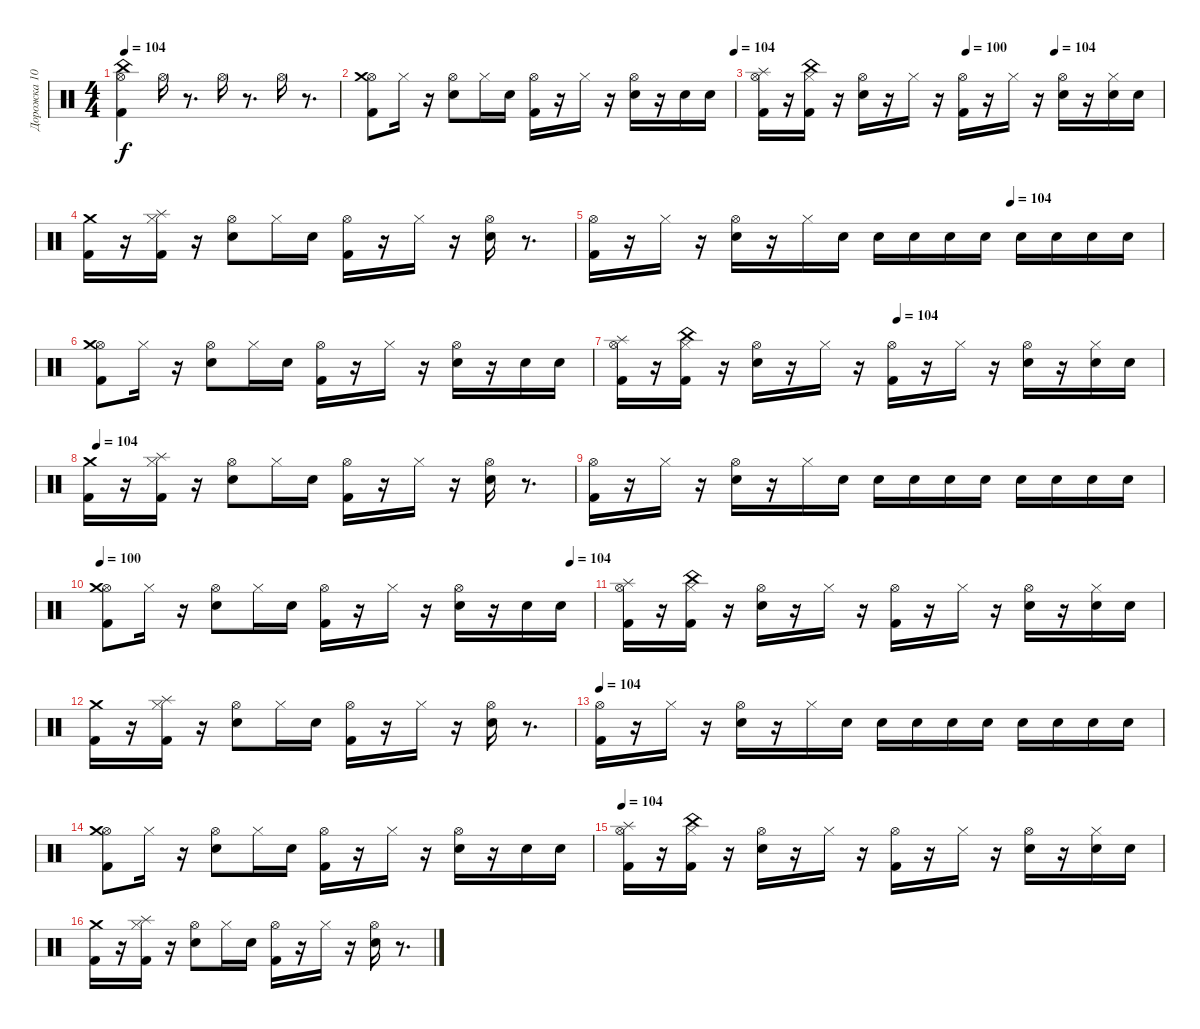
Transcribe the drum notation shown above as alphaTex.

\track ("Дорожка 10" "Дорожка 10") {instrument percussion}
\staff {score}
\articulation defaults
\ts (4 4)
\tempo 104
\clef neutral
\ks c
("China (hit)" "Hi-Hat (open)" "Kick (hit) 2").4{dy f} "Hi-Hat (open)".16 r.8{d} "Hi-Hat (open)".16 r.8{d} "Hi-Hat (open)".16 r.8{d} |
\tempo (104 1)
("Hi-Hat (open)" "Crash medium (hit)" "Kick (hit) 2").8 "Hi-Hat (closed)".16 r.16 ("Hi-Hat (open)" "Electric Snare (hit)").8 "Hi-Hat (closed)".16 "Electric Snare (hit)".16 ("Hi-Hat (open)" "Kick (hit) 2").16 r.16 "Hi-Hat (closed)".16 r.16 ("Hi-Hat (open)" "Electric Snare (hit)").16 r.16 "Electric Snare (hit)".16 "Electric Snare (hit)".16 |
\tempo (100 0.515625)
\tempo (104 0.734375)
("Splash (hit)" "Hi-Hat (open)" "Kick (hit) 2").16 r.16 ("Kick (hit) 2" "China (hit)" "Hi-Hat (closed)").16 r.16 ("Electric Snare (hit)" "Hi-Hat (open)").16 r.16 "Hi-Hat (closed)".16 r.16 ("Kick (hit) 2" "Hi-Hat (open)").16 r.16 "Hi-Hat (closed)".16 r.16 ("Electric Snare (hit)" "Hi-Hat (open)").16 r.16 ("Electric Snare (hit)" "Hi-Hat (closed)").16 "Electric Snare (hit)".16 |
("Kick (hit) 2" "Crash medium (hit)").16 r.16 ("Kick (hit) 2" "Splash (hit)" "Hi-Hat (closed)").16 r.16 ("Hi-Hat (open)" "Electric Snare (hit)").8 "Hi-Hat (closed)".16 "Electric Snare (hit)".16 ("Hi-Hat (open)" "Kick (hit) 2").16 r.16 "Hi-Hat (closed)".16 r.16 ("Hi-Hat (open)" "Electric Snare (hit)").16 r.8{d} |
\tempo (104 0.734375)
("Hi-Hat (open)" "Kick (hit) 2").16 r.16 "Hi-Hat (closed)".16 r.16 ("Electric Snare (hit)" "Hi-Hat (open)").16 r.16 "Hi-Hat (closed)".16 "Electric Snare (hit)".16 "Electric Snare (hit)".16 "Electric Snare (hit)".16 "Electric Snare (hit)".16 "Electric Snare (hit)".16 "Electric Snare (hit)".16 "Electric Snare (hit)".16 "Electric Snare (hit)".16 "Electric Snare (hit)".16 |
("Hi-Hat (open)" "Crash medium (hit)" "Kick (hit) 2").8 "Hi-Hat (closed)".16 r.16 ("Hi-Hat (open)" "Electric Snare (hit)").8 "Hi-Hat (closed)".16 "Electric Snare (hit)".16 ("Hi-Hat (open)" "Kick (hit) 2").16 r.16 "Hi-Hat (closed)".16 r.16 ("Hi-Hat (open)" "Electric Snare (hit)").16 r.16 "Electric Snare (hit)".16 "Electric Snare (hit)".16 |
\tempo (104 0.515625)
("Splash (hit)" "Hi-Hat (open)" "Kick (hit) 2").16 r.16 ("Kick (hit) 2" "China (hit)" "Hi-Hat (closed)").16 r.16 ("Electric Snare (hit)" "Hi-Hat (open)").16 r.16 "Hi-Hat (closed)".16 r.16 ("Kick (hit) 2" "Hi-Hat (open)").16 r.16 "Hi-Hat (closed)".16 r.16 ("Electric Snare (hit)" "Hi-Hat (open)").16 r.16 ("Electric Snare (hit)" "Hi-Hat (closed)").16 "Electric Snare (hit)".16 |
\tempo (104 0.015625)
("Kick (hit) 2" "Crash medium (hit)").16 r.16 ("Kick (hit) 2" "Splash (hit)" "Hi-Hat (closed)").16 r.16 ("Hi-Hat (open)" "Electric Snare (hit)").8 "Hi-Hat (closed)".16 "Electric Snare (hit)".16 ("Hi-Hat (open)" "Kick (hit) 2").16 r.16 "Hi-Hat (closed)".16 r.16 ("Hi-Hat (open)" "Electric Snare (hit)").16 r.8{d} |
("Hi-Hat (open)" "Kick (hit) 2").16 r.16 "Hi-Hat (closed)".16 r.16 ("Electric Snare (hit)" "Hi-Hat (open)").16 r.16 "Hi-Hat (closed)".16 "Electric Snare (hit)".16 "Electric Snare (hit)".16 "Electric Snare (hit)".16 "Electric Snare (hit)".16 "Electric Snare (hit)".16 "Electric Snare (hit)".16 "Electric Snare (hit)".16 "Electric Snare (hit)".16 "Electric Snare (hit)".16 |
\tempo 100
\tempo (104 0.953125)
("Hi-Hat (open)" "Crash medium (hit)" "Kick (hit) 2").8 "Hi-Hat (closed)".16 r.16 ("Hi-Hat (open)" "Electric Snare (hit)").8 "Hi-Hat (closed)".16 "Electric Snare (hit)".16 ("Hi-Hat (open)" "Kick (hit) 2").16 r.16 "Hi-Hat (closed)".16 r.16 ("Hi-Hat (open)" "Electric Snare (hit)").16 r.16 "Electric Snare (hit)".16 "Electric Snare (hit)".16 |
("Splash (hit)" "Hi-Hat (open)" "Kick (hit) 2").16 r.16 ("Kick (hit) 2" "China (hit)" "Hi-Hat (closed)").16 r.16 ("Electric Snare (hit)" "Hi-Hat (open)").16 r.16 "Hi-Hat (closed)".16 r.16 ("Kick (hit) 2" "Hi-Hat (open)").16 r.16 "Hi-Hat (closed)".16 r.16 ("Electric Snare (hit)" "Hi-Hat (open)").16 r.16 ("Electric Snare (hit)" "Hi-Hat (closed)").16 "Electric Snare (hit)".16 |
("Kick (hit) 2" "Crash medium (hit)").16 r.16 ("Kick (hit) 2" "Splash (hit)" "Hi-Hat (closed)").16 r.16 ("Hi-Hat (open)" "Electric Snare (hit)").8 "Hi-Hat (closed)".16 "Electric Snare (hit)".16 ("Hi-Hat (open)" "Kick (hit) 2").16 r.16 "Hi-Hat (closed)".16 r.16 ("Hi-Hat (open)" "Electric Snare (hit)").16 r.8{d} |
\tempo 104
("Hi-Hat (open)" "Kick (hit) 2").16 r.16 "Hi-Hat (closed)".16 r.16 ("Electric Snare (hit)" "Hi-Hat (open)").16 r.16 "Hi-Hat (closed)".16 "Electric Snare (hit)".16 "Electric Snare (hit)".16 "Electric Snare (hit)".16 "Electric Snare (hit)".16 "Electric Snare (hit)".16 "Electric Snare (hit)".16 "Electric Snare (hit)".16 "Electric Snare (hit)".16 "Electric Snare (hit)".16 |
("Hi-Hat (open)" "Crash medium (hit)" "Kick (hit) 2").8 "Hi-Hat (closed)".16 r.16 ("Hi-Hat (open)" "Electric Snare (hit)").8 "Hi-Hat (closed)".16 "Electric Snare (hit)".16 ("Hi-Hat (open)" "Kick (hit) 2").16 r.16 "Hi-Hat (closed)".16 r.16 ("Hi-Hat (open)" "Electric Snare (hit)").16 r.16 "Electric Snare (hit)".16 "Electric Snare (hit)".16 |
\tempo 104
("Splash (hit)" "Hi-Hat (open)" "Kick (hit) 2").16 r.16 ("Kick (hit) 2" "China (hit)" "Hi-Hat (closed)").16 r.16 ("Electric Snare (hit)" "Hi-Hat (open)").16 r.16 "Hi-Hat (closed)".16 r.16 ("Kick (hit) 2" "Hi-Hat (open)").16 r.16 "Hi-Hat (closed)".16 r.16 ("Electric Snare (hit)" "Hi-Hat (open)").16 r.16 ("Electric Snare (hit)" "Hi-Hat (closed)").16 "Electric Snare (hit)".16 |
("Kick (hit) 2" "Crash medium (hit)").16 r.16 ("Kick (hit) 2" "Splash (hit)" "Hi-Hat (closed)").16 r.16 ("Hi-Hat (open)" "Electric Snare (hit)").8 "Hi-Hat (closed)".16 "Electric Snare (hit)".16 ("Hi-Hat (open)" "Kick (hit) 2").16 r.16 "Hi-Hat (closed)".16 r.16 ("Hi-Hat (open)" "Electric Snare (hit)").16 r.8{d}
